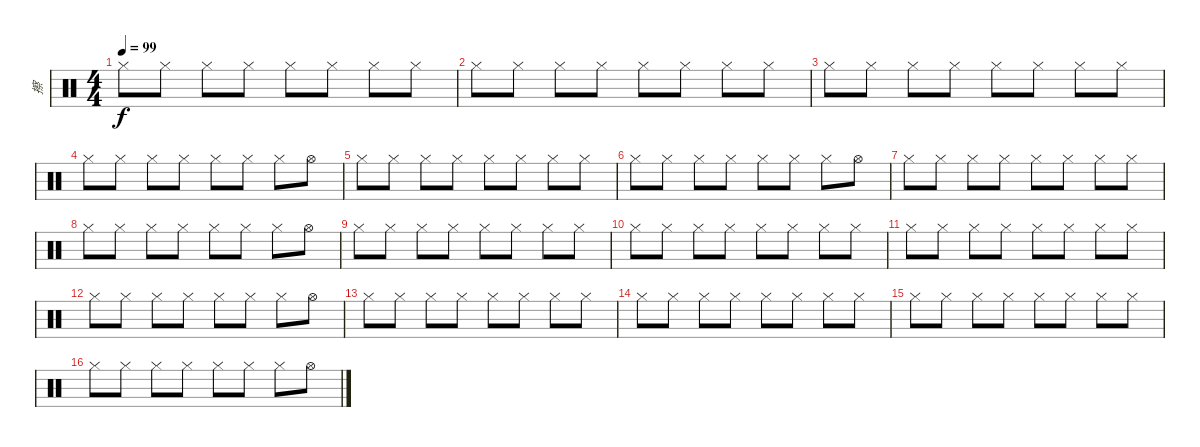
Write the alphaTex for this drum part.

\track ("擦" "擦") {instrument percussion}
\staff {score}
\articulation defaults
\ts (4 4)
\tempo 99
\clef neutral
\ks c "Hi-Hat (closed)".8{dy f} "Hi-Hat (closed)".8 "Hi-Hat (closed)".8 "Hi-Hat (closed)".8 "Hi-Hat (closed)".8 "Hi-Hat (closed)".8 "Hi-Hat (closed)".8 "Hi-Hat (closed)".8
|
"Hi-Hat (closed)".8 "Hi-Hat (closed)".8 "Hi-Hat (closed)".8 "Hi-Hat (closed)".8 "Hi-Hat (closed)".8 "Hi-Hat (closed)".8 "Hi-Hat (closed)".8 "Hi-Hat (closed)".8 |
"Hi-Hat (closed)".8 "Hi-Hat (closed)".8 "Hi-Hat (closed)".8 "Hi-Hat (closed)".8 "Hi-Hat (closed)".8 "Hi-Hat (closed)".8 "Hi-Hat (closed)".8 "Hi-Hat (closed)".8 |
"Hi-Hat (closed)".8 "Hi-Hat (closed)".8 "Hi-Hat (closed)".8 "Hi-Hat (closed)".8 "Hi-Hat (closed)".8 "Hi-Hat (closed)".8 "Hi-Hat (closed)".8 "Hi-Hat (open)".8 |
"Hi-Hat (closed)".8 "Hi-Hat (closed)".8 "Hi-Hat (closed)".8 "Hi-Hat (closed)".8 "Hi-Hat (closed)".8 "Hi-Hat (closed)".8 "Hi-Hat (closed)".8 "Hi-Hat (closed)".8 |
"Hi-Hat (closed)".8 "Hi-Hat (closed)".8 "Hi-Hat (closed)".8 "Hi-Hat (closed)".8 "Hi-Hat (closed)".8 "Hi-Hat (closed)".8 "Hi-Hat (closed)".8 "Hi-Hat (open)".8 |
"Hi-Hat (closed)".8 "Hi-Hat (closed)".8 "Hi-Hat (closed)".8 "Hi-Hat (closed)".8 "Hi-Hat (closed)".8 "Hi-Hat (closed)".8 "Hi-Hat (closed)".8 "Hi-Hat (closed)".8 |
"Hi-Hat (closed)".8 "Hi-Hat (closed)".8 "Hi-Hat (closed)".8 "Hi-Hat (closed)".8 "Hi-Hat (closed)".8 "Hi-Hat (closed)".8 "Hi-Hat (closed)".8 "Hi-Hat (open)".8 |
"Hi-Hat (closed)".8 "Hi-Hat (closed)".8 "Hi-Hat (closed)".8 "Hi-Hat (closed)".8 "Hi-Hat (closed)".8 "Hi-Hat (closed)".8 "Hi-Hat (closed)".8 "Hi-Hat (closed)".8 |
"Hi-Hat (closed)".8 "Hi-Hat (closed)".8 "Hi-Hat (closed)".8 "Hi-Hat (closed)".8 "Hi-Hat (closed)".8 "Hi-Hat (closed)".8 "Hi-Hat (closed)".8 "Hi-Hat (closed)".8 |
"Hi-Hat (closed)".8 "Hi-Hat (closed)".8 "Hi-Hat (closed)".8 "Hi-Hat (closed)".8 "Hi-Hat (closed)".8 "Hi-Hat (closed)".8 "Hi-Hat (closed)".8 "Hi-Hat (closed)".8 |
"Hi-Hat (closed)".8 "Hi-Hat (closed)".8 "Hi-Hat (closed)".8 "Hi-Hat (closed)".8 "Hi-Hat (closed)".8 "Hi-Hat (closed)".8 "Hi-Hat (closed)".8 "Hi-Hat (open)".8 |
"Hi-Hat (closed)".8 "Hi-Hat (closed)".8 "Hi-Hat (closed)".8 "Hi-Hat (closed)".8 "Hi-Hat (closed)".8 "Hi-Hat (closed)".8 "Hi-Hat (closed)".8 "Hi-Hat (closed)".8 |
"Hi-Hat (closed)".8 "Hi-Hat (closed)".8 "Hi-Hat (closed)".8 "Hi-Hat (closed)".8 "Hi-Hat (closed)".8 "Hi-Hat (closed)".8 "Hi-Hat (closed)".8 "Hi-Hat (closed)".8 |
"Hi-Hat (closed)".8 "Hi-Hat (closed)".8 "Hi-Hat (closed)".8 "Hi-Hat (closed)".8 "Hi-Hat (closed)".8 "Hi-Hat (closed)".8 "Hi-Hat (closed)".8 "Hi-Hat (closed)".8 |
"Hi-Hat (closed)".8 "Hi-Hat (closed)".8 "Hi-Hat (closed)".8 "Hi-Hat (closed)".8 "Hi-Hat (closed)".8 "Hi-Hat (closed)".8 "Hi-Hat (closed)".8 "Hi-Hat (open)".8
